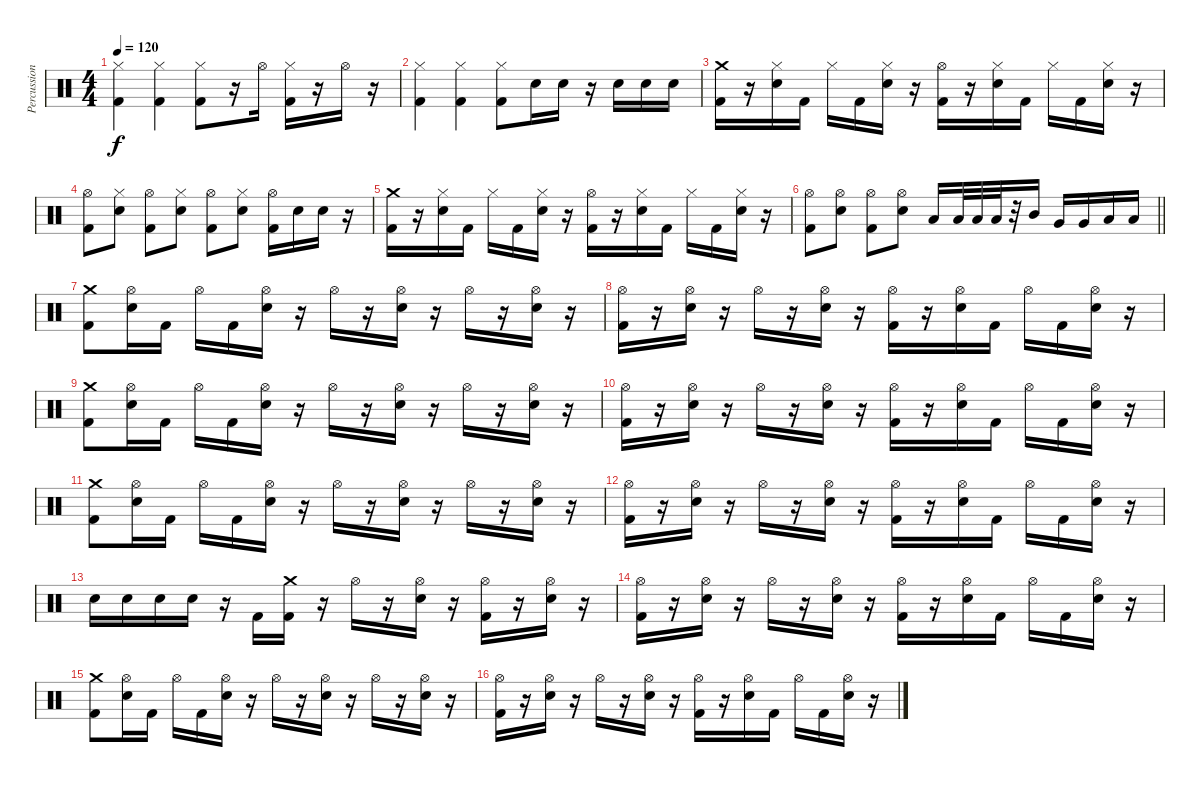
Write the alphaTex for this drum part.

\track ("Percussion" "Percussion") {instrument percussion}
\staff {score}
\articulation defaults
\ts (4 4)
\tempo 120
\clef neutral
\ks c
("Hi-Hat (closed)" "Kick (hit) 2").4{dy f} ("Hi-Hat (closed)" "Kick (hit) 2").4 ("Hi-Hat (closed)" "Kick (hit) 2").8 r.16 "Hi-Hat (open)".16 ("Hi-Hat (closed)" "Kick (hit) 2").16 r.16 "Hi-Hat (open)".16 r.16 |
("Hi-Hat (closed)" "Kick (hit) 2").4 ("Hi-Hat (closed)" "Kick (hit) 2").4 ("Hi-Hat (closed)" "Kick (hit) 2").8 "Electric Snare (hit)".16 "Electric Snare (hit)".16 r.16 "Electric Snare (hit)".16 "Electric Snare (hit)".16 "Electric Snare (hit)".16 |
("Crash medium (hit)" "Kick (hit) 2").16 r.16 ("Hi-Hat (closed)" "Electric Snare (hit)").16 "Kick (hit) 2".16 "Hi-Hat (closed)".16 "Kick (hit) 2".16 ("Hi-Hat (closed)" "Electric Snare (hit)").16 r.16 ("Hi-Hat (open)" "Kick (hit) 2").16 r.16 ("Hi-Hat (closed)" "Electric Snare (hit)").16 "Kick (hit) 2".16 "Hi-Hat (closed)".16 "Kick (hit) 2".16 ("Hi-Hat (closed)" "Electric Snare (hit)").16 r.16 |
("Hi-Hat (open)" "Kick (hit) 2").8 ("Hi-Hat (closed)" "Electric Snare (hit)").8 ("Hi-Hat (open)" "Kick (hit) 2").8 ("Hi-Hat (closed)" "Electric Snare (hit)").8 ("Hi-Hat (open)" "Kick (hit) 2").8 ("Hi-Hat (closed)" "Electric Snare (hit)").8 ("Hi-Hat (open)" "Kick (hit) 2").16 "Electric Snare (hit)".16 "Electric Snare (hit)".16 r.16 |
("Crash medium (hit)" "Kick (hit) 2").16 r.16 ("Hi-Hat (closed)" "Electric Snare (hit)").16 "Kick (hit) 2".16 "Hi-Hat (closed)".16 "Kick (hit) 2".16 ("Hi-Hat (closed)" "Electric Snare (hit)").16 r.16 ("Hi-Hat (open)" "Kick (hit) 2").16 r.16 ("Hi-Hat (closed)" "Electric Snare (hit)").16 "Kick (hit) 2".16 "Hi-Hat (closed)".16 "Kick (hit) 2".16 ("Hi-Hat (closed)" "Electric Snare (hit)").16 r.16 |
\barLineRight lightlight
("Hi-Hat (open)" "Kick (hit) 2").8 ("Hi-Hat (open)" "Electric Snare (hit)").8 ("Hi-Hat (open)" "Kick (hit) 2").8 ("Hi-Hat (open)" "Electric Snare (hit)").8 "Low Tom (hit)".16 "Low Tom (hit)".32 "Low Tom (hit)".32 "Low Tom (hit)".32 r.32 "Mid Tom (hit)".16 "Very Low Tom (hit)".16 "Very Low Tom (hit)".16 "Low Floor Tom (hit)".16 "Low Floor Tom (hit)".16 |
("Crash medium (hit)" "Kick (hit) 2").8 ("Hi-Hat (open)" "Electric Snare (hit)").16 "Kick (hit) 2".16 "Hi-Hat (open)".16 "Kick (hit) 2".16 ("Hi-Hat (open)" "Electric Snare (hit)").16 r.16 "Hi-Hat (open)".16 r.16 ("Hi-Hat (open)" "Electric Snare (hit)").16 r.16 "Hi-Hat (open)".16 r.16 ("Hi-Hat (open)" "Electric Snare (hit)").16 r.16 |
("Hi-Hat (open)" "Kick (hit) 2").16 r.16 ("Hi-Hat (open)" "Electric Snare (hit)").16 r.16 "Hi-Hat (open)".16 r.16 ("Hi-Hat (open)" "Electric Snare (hit)").16 r.16 ("Hi-Hat (open)" "Kick (hit) 2").16 r.16 ("Hi-Hat (open)" "Electric Snare (hit)").16 "Kick (hit) 2".16 "Hi-Hat (open)".16 "Kick (hit) 2".16 ("Hi-Hat (open)" "Electric Snare (hit)").16 r.16 |
("Crash medium (hit)" "Kick (hit) 2").8 ("Hi-Hat (open)" "Electric Snare (hit)").16 "Kick (hit) 2".16 "Hi-Hat (open)".16 "Kick (hit) 2".16 ("Hi-Hat (open)" "Electric Snare (hit)").16 r.16 "Hi-Hat (open)".16 r.16 ("Hi-Hat (open)" "Electric Snare (hit)").16 r.16 "Hi-Hat (open)".16 r.16 ("Hi-Hat (open)" "Electric Snare (hit)").16 r.16 |
("Hi-Hat (open)" "Kick (hit) 2").16 r.16 ("Hi-Hat (open)" "Electric Snare (hit)").16 r.16 "Hi-Hat (open)".16 r.16 ("Hi-Hat (open)" "Electric Snare (hit)").16 r.16 ("Hi-Hat (open)" "Kick (hit) 2").16 r.16 ("Hi-Hat (open)" "Electric Snare (hit)").16 "Kick (hit) 2".16 "Hi-Hat (open)".16 "Kick (hit) 2".16 ("Hi-Hat (open)" "Electric Snare (hit)").16 r.16 |
("Crash medium (hit)" "Kick (hit) 2").8 ("Hi-Hat (open)" "Electric Snare (hit)").16 "Kick (hit) 2".16 "Hi-Hat (open)".16 "Kick (hit) 2".16 ("Hi-Hat (open)" "Electric Snare (hit)").16 r.16 "Hi-Hat (open)".16 r.16 ("Hi-Hat (open)" "Electric Snare (hit)").16 r.16 "Hi-Hat (open)".16 r.16 ("Hi-Hat (open)" "Electric Snare (hit)").16 r.16 |
("Hi-Hat (open)" "Kick (hit) 2").16 r.16 ("Hi-Hat (open)" "Electric Snare (hit)").16 r.16 "Hi-Hat (open)".16 r.16 ("Hi-Hat (open)" "Electric Snare (hit)").16 r.16 ("Hi-Hat (open)" "Kick (hit) 2").16 r.16 ("Hi-Hat (open)" "Electric Snare (hit)").16 "Kick (hit) 2".16 "Hi-Hat (open)".16 "Kick (hit) 2".16 ("Hi-Hat (open)" "Electric Snare (hit)").16 r.16 |
"Electric Snare (hit)".16 "Electric Snare (hit)".16 "Electric Snare (hit)".16 "Electric Snare (hit)".16 r.16 "Kick (hit) 2".16 ("Crash medium (hit)" "Kick (hit) 2").16 r.16 "Hi-Hat (open)".16 r.16 ("Hi-Hat (open)" "Electric Snare (hit)").16 r.16 ("Hi-Hat (open)" "Kick (hit) 2").16 r.16 ("Hi-Hat (open)" "Electric Snare (hit)").16 r.16 |
("Hi-Hat (open)" "Kick (hit) 2").16 r.16 ("Hi-Hat (open)" "Electric Snare (hit)").16 r.16 "Hi-Hat (open)".16 r.16 ("Hi-Hat (open)" "Electric Snare (hit)").16 r.16 ("Hi-Hat (open)" "Kick (hit) 2").16 r.16 ("Hi-Hat (open)" "Electric Snare (hit)").16 "Kick (hit) 2".16 "Hi-Hat (open)".16 "Kick (hit) 2".16 ("Hi-Hat (open)" "Electric Snare (hit)").16 r.16 |
("Crash medium (hit)" "Kick (hit) 2").8 ("Hi-Hat (open)" "Electric Snare (hit)").16 "Kick (hit) 2".16 "Hi-Hat (open)".16 "Kick (hit) 2".16 ("Hi-Hat (open)" "Electric Snare (hit)").16 r.16 "Hi-Hat (open)".16 r.16 ("Hi-Hat (open)" "Electric Snare (hit)").16 r.16 "Hi-Hat (open)".16 r.16 ("Hi-Hat (open)" "Electric Snare (hit)").16 r.16 |
("Hi-Hat (open)" "Kick (hit) 2").16 r.16 ("Hi-Hat (open)" "Electric Snare (hit)").16 r.16 "Hi-Hat (open)".16 r.16 ("Hi-Hat (open)" "Electric Snare (hit)").16 r.16 ("Hi-Hat (open)" "Kick (hit) 2").16 r.16 ("Hi-Hat (open)" "Electric Snare (hit)").16 "Kick (hit) 2".16 "Hi-Hat (open)".16 "Kick (hit) 2".16 ("Hi-Hat (open)" "Electric Snare (hit)").16 r.16
